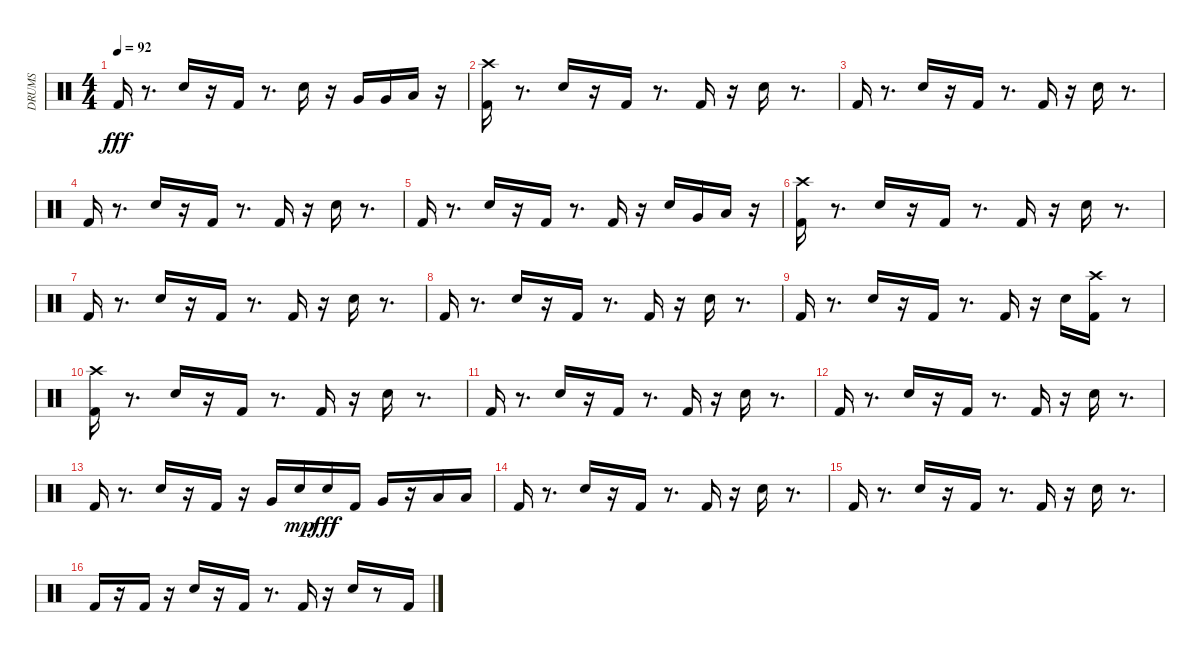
\track ("DRUMS" "DRUMS") {instrument percussion}
\staff {score}
\articulation defaults
\ts (4 4)
\tempo 92
\clef neutral
\ks c "Kick (hit) 2".16{dy fff}
r.8{d} "Electric Snare (hit)".16 r.16 "Kick (hit) 2".16 r.8{d} "Electric Snare (hit)".16 r.16 "Very Low Tom (hit)".16 "Very Low Tom (hit)".16 "Low Floor Tom (hit)".16 r.16 |
("Kick (hit) 2" "Crash high (hit)").16 r.8{d} "Electric Snare (hit)".16 r.16 "Kick (hit) 2".16 r.8{d} "Kick (hit) 2".16 r.16 "Electric Snare (hit)".16 r.8{d} |
"Kick (hit) 2".16 r.8{d} "Electric Snare (hit)".16 r.16 "Kick (hit) 2".16 r.8{d} "Kick (hit) 2".16 r.16 "Electric Snare (hit)".16 r.8{d} |
"Kick (hit) 2".16 r.8{d} "Electric Snare (hit)".16 r.16 "Kick (hit) 2".16 r.8{d} "Kick (hit) 2".16 r.16 "Electric Snare (hit)".16 r.8{d} |
"Kick (hit) 2".16 r.8{d} "Electric Snare (hit)".16 r.16 "Kick (hit) 2".16 r.8{d} "Kick (hit) 2".16 r.16 "Electric Snare (hit)".16 "Very Low Tom (hit)".16 "Low Floor Tom (hit)".16 r.16 |
("Kick (hit) 2" "Crash high (hit)").16 r.8{d} "Electric Snare (hit)".16 r.16 "Kick (hit) 2".16 r.8{d} "Kick (hit) 2".16 r.16 "Electric Snare (hit)".16 r.8{d} |
"Kick (hit) 2".16 r.8{d} "Electric Snare (hit)".16 r.16 "Kick (hit) 2".16 r.8{d} "Kick (hit) 2".16 r.16 "Electric Snare (hit)".16 r.8{d} |
"Kick (hit) 2".16 r.8{d} "Electric Snare (hit)".16 r.16 "Kick (hit) 2".16 r.8{d} "Kick (hit) 2".16 r.16 "Electric Snare (hit)".16 r.8{d} |
"Kick (hit) 2".16 r.8{d} "Electric Snare (hit)".16 r.16 "Kick (hit) 2".16 r.8{d} "Kick (hit) 2".16 r.16 "Electric Snare (hit)".16 ("Kick (hit) 2" "Crash high (hit)").16 r.8 |
("Kick (hit) 2" "Crash high (hit)").16 r.8{d} "Electric Snare (hit)".16 r.16 "Kick (hit) 2".16 r.8{d} "Kick (hit) 2".16 r.16 "Electric Snare (hit)".16 r.8{d} |
"Kick (hit) 2".16 r.8{d} "Electric Snare (hit)".16 r.16 "Kick (hit) 2".16 r.8{d} "Kick (hit) 2".16 r.16 "Electric Snare (hit)".16 r.8{d} |
"Kick (hit) 2".16 r.8{d} "Electric Snare (hit)".16 r.16 "Kick (hit) 2".16 r.8{d} "Kick (hit) 2".16 r.16 "Electric Snare (hit)".16 r.8{d} |
"Kick (hit) 2".16 r.8{d} "Electric Snare (hit)".16 r.16 "Kick (hit) 2".16 r.16 "Very Low Tom (hit)".16 "Electric Snare (hit)".16{dy mp} "Electric Snare (hit)".16{dy fff} "Kick (hit) 2".16 "Very Low Tom (hit)".16 r.16 "Low Floor Tom (hit)".16 "Low Floor Tom (hit)".16 |
"Kick (hit) 2".16 r.8{d} "Electric Snare (hit)".16 r.16 "Kick (hit) 2".16 r.8{d} "Kick (hit) 2".16 r.16 "Electric Snare (hit)".16 r.8{d} |
"Kick (hit) 2".16 r.8{d} "Electric Snare (hit)".16 r.16 "Kick (hit) 2".16 r.8{d} "Kick (hit) 2".16 r.16 "Electric Snare (hit)".16 r.8{d} |
"Kick (hit) 2".16 r.16 "Kick (hit) 2".16 r.16 "Electric Snare (hit)".16 r.16 "Kick (hit) 2".16 r.8{d} "Kick (hit) 2".16 r.16 "Electric Snare (hit)".16 r.8 "Kick (hit) 2".16
